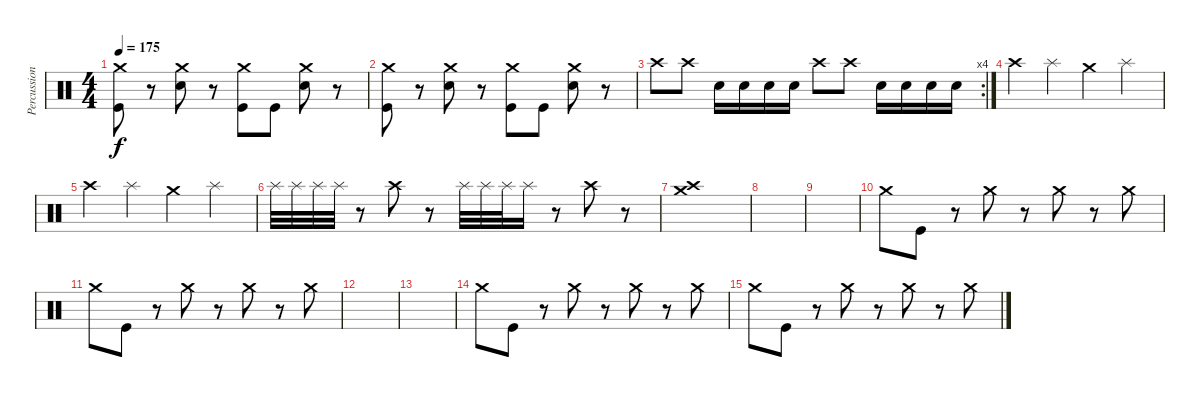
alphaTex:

\track ("Percussion" "Percussion") {instrument percussion}
\staff {score}
\articulation defaults
\ts (4 4)
\tempo 175
\clef neutral
\ks c
("Crash medium (hit)" "Kick (hit)").8{dy f} r.8 ("Crash medium (hit)" "Electric Snare (hit)").8 r.8 ("Crash medium (hit)" "Kick (hit)").8 "Kick (hit)".8 ("Crash medium (hit)" "Electric Snare (hit)").8 r.8 |
("Crash medium (hit)" "Kick (hit)").8 r.8 ("Crash medium (hit)" "Electric Snare (hit)").8 r.8 ("Crash medium (hit)" "Kick (hit)").8 "Kick (hit)".8 ("Crash medium (hit)" "Electric Snare (hit)").8 r.8 |
\rc 4 "Crash high (hit)".8 "Crash high (hit)".8 "Electric Snare (hit)".16 "Electric Snare (hit)".16 "Electric Snare (hit)".16 "Electric Snare (hit)".16 "Crash high (hit)".8 "Crash high (hit)".8 "Electric Snare (hit)".16 "Electric Snare (hit)".16 "Electric Snare (hit)".16 "Electric Snare (hit)".16
|
"Crash high (hit)".4 "Splash (hit)".4 "Crash medium (hit)".4 "Splash (hit)".4 |
"Crash high (hit)".4 "Splash (hit)".4 "Crash medium (hit)".4 "Splash (hit)".4 |
"Splash (hit)".32 "Splash (hit)".32 "Splash (hit)".32 "Splash (hit)".32 r.8 "Crash high (hit)".8 r.8 "Splash (hit)".32 "Splash (hit)".32 "Splash (hit)".32 "Splash (hit)".16 r.8 "Crash high (hit)".8 r.8 |
("Crash high (hit)" "Crash medium (hit)").1 |
|
|
"Crash medium (hit)".8 "Kick (hit)".8 r.8 "Crash medium (hit)".8 r.8 "Crash medium (hit)".8 r.8 "Crash medium (hit)".8 |
"Crash medium (hit)".8 "Kick (hit)".8 r.8 "Crash medium (hit)".8 r.8 "Crash medium (hit)".8 r.8 "Crash medium (hit)".8 |
|
|
"Crash medium (hit)".8 "Kick (hit)".8 r.8 "Crash medium (hit)".8 r.8 "Crash medium (hit)".8 r.8 "Crash medium (hit)".8 |
"Crash medium (hit)".8 "Kick (hit)".8 r.8 "Crash medium (hit)".8 r.8 "Crash medium (hit)".8 r.8 "Crash medium (hit)".8
